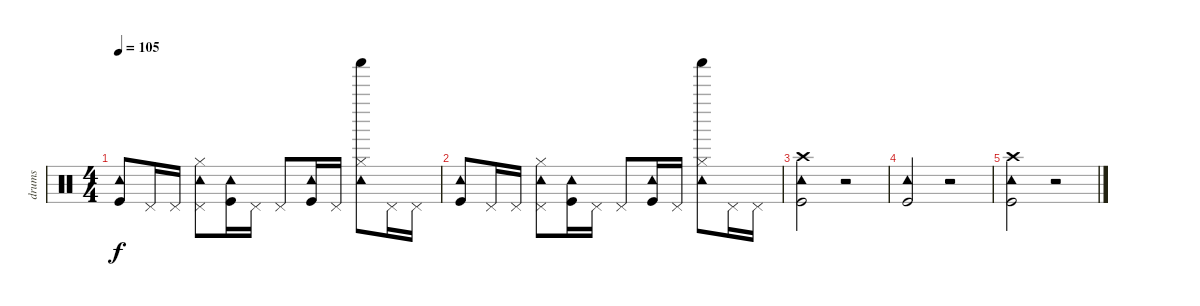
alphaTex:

\track ("drums" "drums") {instrument percussion}
\staff {score}
\articulation defaults
\ts (4 4)
\tempo 105
\clef neutral
\ks c
("Kick (hit)" "Tambourine (hit)").8{dy f} "Pedal Hi-Hat (hit)".16 "Pedal Hi-Hat (hit)".16 ("Tambourine (hit)" "Pedal Hi-Hat (hit)" "Hi-Hat (closed)").8 ("Kick (hit)" "Tambourine (hit)").16 "Pedal Hi-Hat (hit)".16 "Pedal Hi-Hat (hit)".8 ("Kick (hit)" "Tambourine (hit)").16 "Pedal Hi-Hat (hit)".16 ("Tambourine (hit)" "Shaker (hit)" "Hi-Hat (closed)").8 "Pedal Hi-Hat (hit)".16 "Pedal Hi-Hat (hit)".16 |
("Kick (hit)" "Tambourine (hit)").8 "Pedal Hi-Hat (hit)".16 "Pedal Hi-Hat (hit)".16 ("Tambourine (hit)" "Pedal Hi-Hat (hit)" "Hi-Hat (closed)").8 ("Kick (hit)" "Tambourine (hit)").16 "Pedal Hi-Hat (hit)".16 "Pedal Hi-Hat (hit)".8 ("Kick (hit)" "Tambourine (hit)").16 "Pedal Hi-Hat (hit)".16 ("Tambourine (hit)" "Shaker (hit)" "Hi-Hat (closed)").8 "Pedal Hi-Hat (hit)".16 "Pedal Hi-Hat (hit)".16 |
("Crash high (hit)" "Kick (hit)" "Tambourine (hit)").2 r.2 |
("Kick (hit)" "Tambourine (hit)").2 r.2 |
("Crash high (hit)" "Kick (hit)" "Tambourine (hit)").2 r.2
